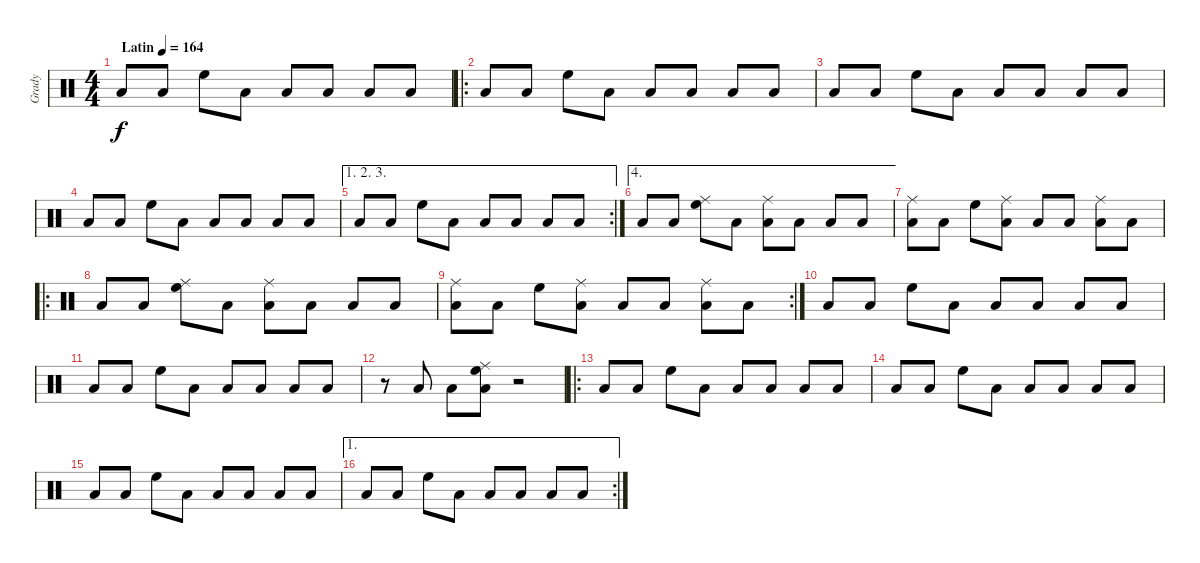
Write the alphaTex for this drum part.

\track ("Grady" "Grady") {instrument percussion}
\staff {score}
\articulation defaults
\ts (4 4)
\tempo (164 "Latin")
\clef neutral
\ks c "Low Tom (hit)".8{dy f} "Low Tom (hit)".8 "High Floor Tom (hit)".8 "Low Tom (hit)".8 "Low Tom (hit)".8 "Low Tom (hit)".8 "Low Tom (hit)".8 "Low Tom (hit)".8
|
\ro "Low Tom (hit)".8 "Low Tom (hit)".8 "High Floor Tom (hit)".8 "Low Tom (hit)".8 "Low Tom (hit)".8 "Low Tom (hit)".8 "Low Tom (hit)".8 "Low Tom (hit)".8
|
"Low Tom (hit)".8 "Low Tom (hit)".8 "High Floor Tom (hit)".8 "Low Tom (hit)".8 "Low Tom (hit)".8 "Low Tom (hit)".8 "Low Tom (hit)".8 "Low Tom (hit)".8 |
"Low Tom (hit)".8 "Low Tom (hit)".8 "High Floor Tom (hit)".8 "Low Tom (hit)".8 "Low Tom (hit)".8 "Low Tom (hit)".8 "Low Tom (hit)".8 "Low Tom (hit)".8 |
\ae (1 2 3)
\rc 2 "Low Tom (hit)".8 "Low Tom (hit)".8 "High Floor Tom (hit)".8 "Low Tom (hit)".8 "Low Tom (hit)".8 "Low Tom (hit)".8 "Low Tom (hit)".8 "Low Tom (hit)".8
|
\ae 4 "Low Tom (hit)".8 "Low Tom (hit)".8
("High Floor Tom (hit)" "Ride (middle)").8 "Low Tom (hit)".8 ("Ride (middle)" "Low Tom (hit)").8 "Low Tom (hit)".8 "Low Tom (hit)".8 "Low Tom (hit)".8 |
("Ride (middle)" "Low Tom (hit)").8 "Low Tom (hit)".8 "High Floor Tom (hit)".8 ("Ride (middle)" "Low Tom (hit)").8 "Low Tom (hit)".8 "Low Tom (hit)".8 ("Ride (middle)" "Low Tom (hit)").8 "Low Tom (hit)".8 |
\ro "Low Tom (hit)".8 "Low Tom (hit)".8
("High Floor Tom (hit)" "Ride (middle)").8 "Low Tom (hit)".8 ("Ride (middle)" "Low Tom (hit)").8 "Low Tom (hit)".8 "Low Tom (hit)".8 "Low Tom (hit)".8 |
\rc 2
("Ride (middle)" "Low Tom (hit)").8 "Low Tom (hit)".8 "High Floor Tom (hit)".8 ("Ride (middle)" "Low Tom (hit)").8 "Low Tom (hit)".8 "Low Tom (hit)".8 ("Ride (middle)" "Low Tom (hit)").8 "Low Tom (hit)".8 |
"Low Tom (hit)".8 "Low Tom (hit)".8 "High Floor Tom (hit)".8 "Low Tom (hit)".8 "Low Tom (hit)".8 "Low Tom (hit)".8 "Low Tom (hit)".8 "Low Tom (hit)".8 |
"Low Tom (hit)".8 "Low Tom (hit)".8 "High Floor Tom (hit)".8 "Low Tom (hit)".8 "Low Tom (hit)".8 "Low Tom (hit)".8 "Low Tom (hit)".8 "Low Tom (hit)".8 |
r.8 "Low Tom (hit)".8 "Low Tom (hit)".8 ("High Floor Tom (hit)" "Ride (middle)" "Low Tom (hit)").8 r.2 |
\ro "Low Tom (hit)".8 "Low Tom (hit)".8 "High Floor Tom (hit)".8 "Low Tom (hit)".8 "Low Tom (hit)".8 "Low Tom (hit)".8 "Low Tom (hit)".8 "Low Tom (hit)".8
|
"Low Tom (hit)".8 "Low Tom (hit)".8 "High Floor Tom (hit)".8 "Low Tom (hit)".8 "Low Tom (hit)".8 "Low Tom (hit)".8 "Low Tom (hit)".8 "Low Tom (hit)".8 |
"Low Tom (hit)".8 "Low Tom (hit)".8 "High Floor Tom (hit)".8 "Low Tom (hit)".8 "Low Tom (hit)".8 "Low Tom (hit)".8 "Low Tom (hit)".8 "Low Tom (hit)".8 |
\ae 1
\rc 2 "Low Tom (hit)".8 "Low Tom (hit)".8 "High Floor Tom (hit)".8 "Low Tom (hit)".8 "Low Tom (hit)".8 "Low Tom (hit)".8 "Low Tom (hit)".8 "Low Tom (hit)".8
